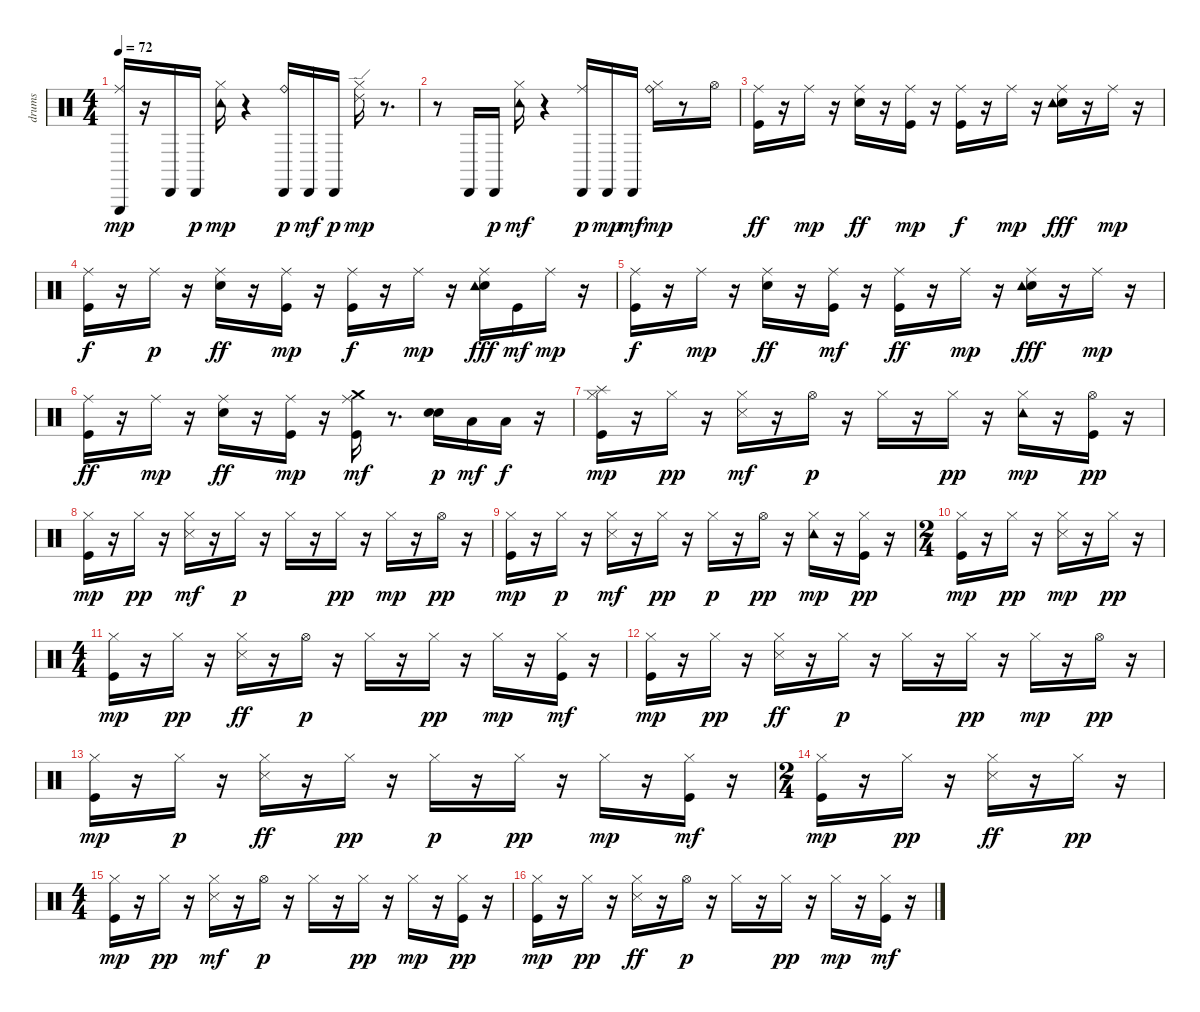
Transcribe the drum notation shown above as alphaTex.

\track ("drums" "drums") {instrument percussion}
\staff {score}
\articulation defaults
\ts (4 4)
\tempo 72
\clef neutral
\ks c
("Ride (middle)" "Triangle (hit)").16{dy mp} r.16 "Cabasa (hit)".16 "Cabasa (hit)".16{dy p} ("Tambourine (hit)" "Hi-Hat (closed)").16{dy mp} r.4 ("Ride (bell)" "Cabasa (hit)").16{dy p} "Cabasa (hit)".16{dy mf} "Cabasa (hit)".16{dy p} ("Ride (edge) 2" "Hi-Hat (closed)").16{dy mp} r.8{d} |
r.8 "Cabasa (hit)".16 "Cabasa (hit)".16{dy p} ("Tambourine (hit)" "Hi-Hat (closed)").16{dy mf} r.4 ("Ride (middle)" "Cabasa (hit)").16{dy p} "Cabasa (hit)".16{dy mp} "Cabasa (hit)".16{dy mf} ("Ride (bell)" "Hi-Hat (closed)").16{dy mp} r.8 "Hi-Hat (open)".16 |
("Ride (middle)" "Kick (hit)").16{dy ff} r.16 "Ride (middle)".16{dy mp} r.16 ("Snare (hit) 2" "Ride (middle)").16{dy ff} r.16 ("Kick (hit)" "Ride (middle)").16{dy mp} r.16 ("Kick (hit)" "Ride (middle)").16{dy f} r.16 "Ride (middle)".16{dy mp} r.16 ("Snare (hit) 2" "Ride (middle)" "Tambourine (hit)").16{dy fff} r.16 "Ride (middle)".16{dy mp} r.16 |
("Ride (middle)" "Kick (hit)").16{dy f} r.16 "Ride (middle)".16{dy p} r.16 ("Snare (hit) 2" "Ride (middle)").16{dy ff} r.16 ("Ride (middle)" "Kick (hit)").16{dy mp} r.16 ("Ride (middle)" "Kick (hit)").16{dy f} r.16 "Ride (middle)".16{dy mp} r.16 ("Snare (hit) 2" "Ride (middle)" "Tambourine (hit)").16{dy fff} "Kick (hit)".16{dy mf} "Ride (middle)".16{dy mp} r.16 |
("Kick (hit)" "Ride (middle)").16{dy f} r.16 "Ride (middle)".16{dy mp} r.16 ("Snare (hit) 2" "Ride (middle)").16{dy ff} r.16 ("Ride (middle)" "Kick (hit)").16{dy mf} r.16 ("Ride (middle)" "Kick (hit)").16{dy ff} r.16 "Ride (middle)".16{dy mp} r.16 ("Snare (hit) 2" "Ride (middle)" "Tambourine (hit)").16{dy fff} r.16 "Ride (middle)".16{dy mp} r.16 |
("Kick (hit)" "Ride (middle)").16{dy ff} r.16 "Ride (middle)".16{dy mp} r.16 ("Snare (hit) 2" "Ride (middle)").16{dy ff} r.16 ("Kick (hit)" "Ride (middle)").16{dy mp} r.16 ("Crash medium (hit)" "Kick (hit)" "Ride (middle)").16{dy mf} r.8{d} ("Snare (hit) 2" "Snare (hit) 2").16{dy p} "Low Tom (hit)".16{dy mf} "Low Floor Tom (hit)".16{dy f} r.16 |
("Splash (hit)" "Kick (hit)" "Hi-Hat (closed)").16{dy mp} r.16 "Hi-Hat (closed)".16{dy pp} r.16 ("Snare (side stick) 3" "Hi-Hat (closed)").16{dy mf} r.16 "Hi-Hat (open)".16{dy p} r.16 "Hi-Hat (closed)".16 r.16 "Hi-Hat (closed)".16{dy pp} r.16 ("Tambourine (hit)" "Hi-Hat (closed)").16{dy mp} r.16 ("Kick (hit)" "Hi-Hat (open)").16{dy pp} r.16 |
("Kick (hit)" "Hi-Hat (closed)").16{dy mp} r.16 "Hi-Hat (closed)".16{dy pp} r.16 ("Snare (side stick) 3" "Hi-Hat (closed)").16{dy mf} r.16 "Hi-Hat (closed)".16{dy p} r.16 "Hi-Hat (closed)".16 r.16 "Hi-Hat (closed)".16{dy pp} r.16 "Hi-Hat (closed)".16{dy mp} r.16 "Hi-Hat (open)".16{dy pp} r.16 |
("Kick (hit)" "Hi-Hat (closed)").16{dy mp} r.16 "Hi-Hat (closed)".16{dy p} r.16 ("Snare (side stick) 3" "Hi-Hat (closed)").16{dy mf} r.16 "Hi-Hat (closed)".16{dy pp} r.16 "Hi-Hat (closed)".16{dy p} r.16 "Hi-Hat (open)".16{dy pp} r.16 ("Tambourine (hit)" "Hi-Hat (closed)").16{dy mp} r.16 ("Kick (hit)" "Hi-Hat (closed)").16{dy pp} r.16 |
\ts (2 4)
("Kick (hit)" "Hi-Hat (closed)").16{dy mp} r.16 "Hi-Hat (closed)".16{dy pp} r.16 ("Snare (side stick) 3" "Hi-Hat (closed)").16{dy mp} r.16 "Hi-Hat (closed)".16{dy pp} r.16 |
\ts (4 4)
("Hi-Hat (closed)" "Kick (hit)").16{dy mp} r.16 "Hi-Hat (closed)".16{dy pp} r.16 ("Hi-Hat (closed)" "Snare (side stick) 3").16{dy ff} r.16 "Hi-Hat (open)".16{dy p} r.16 "Hi-Hat (closed)".16 r.16 "Hi-Hat (closed)".16{dy pp} r.16 "Hi-Hat (closed)".16{dy mp} r.16 ("Hi-Hat (closed)" "Kick (hit)").16{dy mf} r.16 |
("Hi-Hat (closed)" "Kick (hit)").16{dy mp} r.16 "Hi-Hat (closed)".16{dy pp} r.16 ("Hi-Hat (closed)" "Snare (side stick) 3").16{dy ff} r.16 "Hi-Hat (closed)".16{dy p} r.16 "Hi-Hat (closed)".16 r.16 "Hi-Hat (closed)".16{dy pp} r.16 "Hi-Hat (closed)".16{dy mp} r.16 "Hi-Hat (open)".16{dy pp} r.16 |
("Hi-Hat (closed)" "Kick (hit)").16{dy mp} r.16 "Hi-Hat (closed)".16{dy p} r.16 ("Hi-Hat (closed)" "Snare (side stick) 3").16{dy ff} r.16 "Hi-Hat (closed)".16{dy pp} r.16 "Hi-Hat (closed)".16{dy p} r.16 "Hi-Hat (closed)".16{dy pp} r.16 "Hi-Hat (closed)".16{dy mp} r.16 ("Hi-Hat (closed)" "Kick (hit)").16{dy mf} r.16 |
\ts (2 4)
("Hi-Hat (closed)" "Kick (hit)").16{dy mp} r.16 "Hi-Hat (closed)".16{dy pp} r.16 ("Hi-Hat (closed)" "Snare (side stick) 3").16{dy ff} r.16 "Hi-Hat (closed)".16{dy pp} r.16 |
\ts (4 4)
("Hi-Hat (closed)" "Kick (hit)").16{dy mp} r.16 "Hi-Hat (closed)".16{dy pp} r.16 ("Snare (side stick) 3" "Hi-Hat (closed)").16{dy mf} r.16 "Hi-Hat (open)".16{dy p} r.16 "Hi-Hat (closed)".16 r.16 "Hi-Hat (closed)".16{dy pp} r.16 "Hi-Hat (closed)".16{dy mp} r.16 ("Kick (hit)" "Hi-Hat (closed)").16{dy pp} r.16 |
("Hi-Hat (closed)" "Kick (hit)").16{dy mp} r.16 "Hi-Hat (closed)".16{dy pp} r.16 ("Hi-Hat (closed)" "Snare (side stick) 3").16{dy ff} r.16 "Hi-Hat (open)".16{dy p} r.16 "Hi-Hat (closed)".16 r.16 "Hi-Hat (closed)".16{dy pp} r.16 "Hi-Hat (closed)".16{dy mp} r.16 ("Hi-Hat (closed)" "Kick (hit)").16{dy mf} r.16
